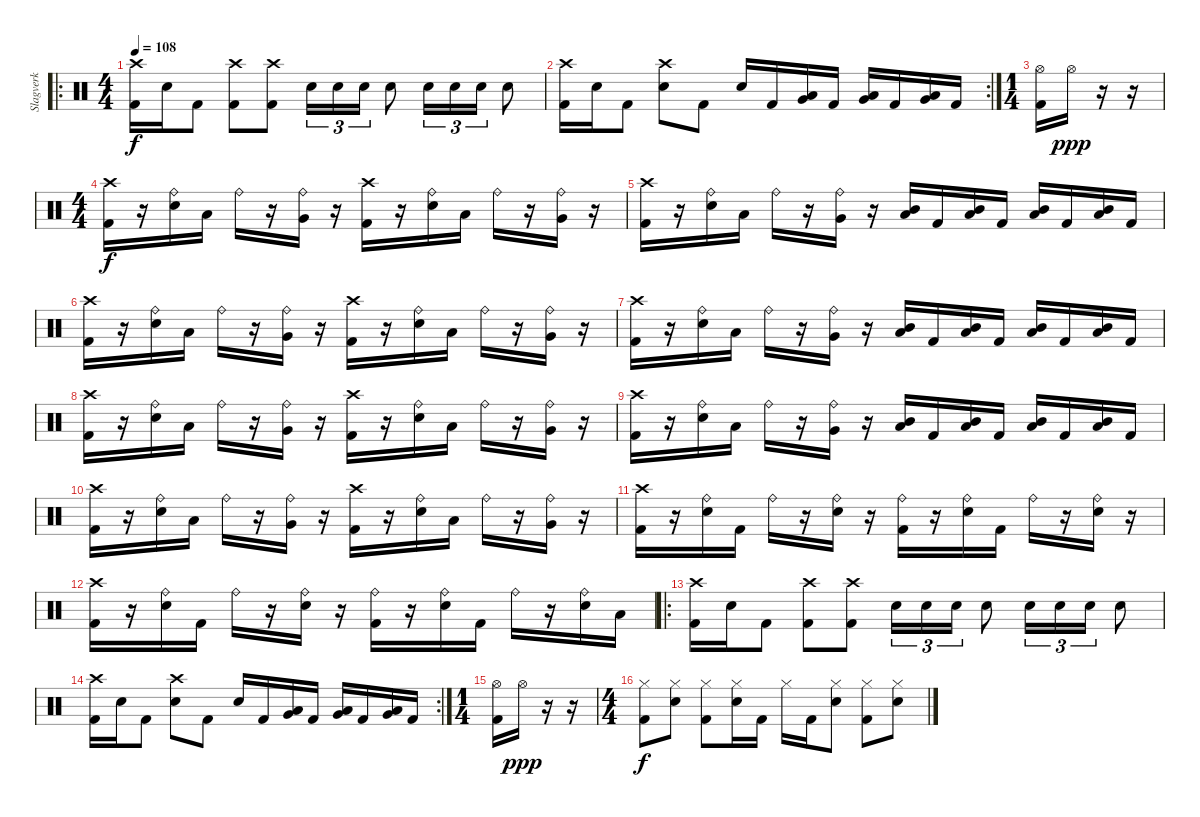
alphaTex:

\track ("Slagverk" "Slagverk") {instrument percussion}
\staff {score}
\articulation defaults
\ro
\ts (4 4)
\tempo 108
\clef neutral
\ks c
("Crash high (hit)" "Kick (hit) 2").16{dy f} "Electric Snare (hit)".16 "Kick (hit) 2".8 ("Crash high (hit)" "Kick (hit) 2").8 ("Crash high (hit)" "Kick (hit) 2").8 "Electric Snare (hit)".16{tu (3 2)} "Electric Snare (hit)".16{tu (3 2)} "Electric Snare (hit)".16{tu (3 2)} "Electric Snare (hit)".8 "Electric Snare (hit)".16{tu (3 2)} "Electric Snare (hit)".16{tu (3 2)} "Electric Snare (hit)".16{tu (3 2)} "Electric Snare (hit)".8 |
\rc 2
("Kick (hit) 2" "Crash high (hit)").16 "Electric Snare (hit)".16 "Kick (hit) 2".8 ("Electric Snare (hit)" "Crash high (hit)").8 "Kick (hit) 2".8 "Electric Snare (hit)".16 "Kick (hit) 2".16 ("Low Tom (hit)" "Very Low Tom (hit)").16 "Kick (hit) 2".16 ("Low Tom (hit)" "Very Low Tom (hit)").16 "Kick (hit) 2".16 ("Low Tom (hit)" "Very Low Tom (hit)").16 "Kick (hit) 2".16 |
\ts (1 4)
("Hi-Hat (open)" "Kick (hit) 2").16 "Hi-Hat (open)".16{dy ppp} r.16 r.16 |
\ts (4 4)
("Crash high (hit)" "Kick (hit) 2").16{dy f} r.16 ("Ride (bell)" "Electric Snare (hit)").16 "Low Tom (hit)".16 "Ride (bell)".16 r.16 ("Ride (bell)" "Very Low Tom (hit)").16 r.16 ("Crash high (hit)" "Kick (hit) 2").16 r.16 ("Ride (bell)" "Electric Snare (hit)").16 "Low Tom (hit)".16 "Ride (bell)".16 r.16 ("Ride (bell)" "Very Low Tom (hit)").16 r.16 |
("Crash high (hit)" "Kick (hit) 2").16 r.16 ("Ride (bell)" "Electric Snare (hit)").16 "Low Tom (hit)".16 "Ride (bell)".16 r.16 ("Ride (bell)" "Very Low Tom (hit)").16 r.16 ("Mid Tom (hit)" "Low Tom (hit)").16 "Kick (hit) 2".16 ("Mid Tom (hit)" "Low Tom (hit)").16 "Kick (hit) 2".16 ("Mid Tom (hit)" "Low Tom (hit)").16 "Kick (hit) 2".16 ("Mid Tom (hit)" "Low Tom (hit)").16 "Kick (hit) 2".16 |
("Crash high (hit)" "Kick (hit) 2").16 r.16 ("Ride (bell)" "Electric Snare (hit)").16 "Low Tom (hit)".16 "Ride (bell)".16 r.16 ("Ride (bell)" "Very Low Tom (hit)").16 r.16 ("Crash high (hit)" "Kick (hit) 2").16 r.16 ("Ride (bell)" "Electric Snare (hit)").16 "Low Tom (hit)".16 "Ride (bell)".16 r.16 ("Ride (bell)" "Very Low Tom (hit)").16 r.16 |
("Crash high (hit)" "Kick (hit) 2").16 r.16 ("Ride (bell)" "Electric Snare (hit)").16 "Low Tom (hit)".16 "Ride (bell)".16 r.16 ("Ride (bell)" "Very Low Tom (hit)").16 r.16 ("Mid Tom (hit)" "Low Tom (hit)").16 "Kick (hit) 2".16 ("Mid Tom (hit)" "Low Tom (hit)").16 "Kick (hit) 2".16 ("Mid Tom (hit)" "Low Tom (hit)").16 "Kick (hit) 2".16 ("Mid Tom (hit)" "Low Tom (hit)").16 "Kick (hit) 2".16 |
("Crash high (hit)" "Kick (hit) 2").16 r.16 ("Ride (bell)" "Electric Snare (hit)").16 "Low Tom (hit)".16 "Ride (bell)".16 r.16 ("Ride (bell)" "Very Low Tom (hit)").16 r.16 ("Crash high (hit)" "Kick (hit) 2").16 r.16 ("Ride (bell)" "Electric Snare (hit)").16 "Low Tom (hit)".16 "Ride (bell)".16 r.16 ("Ride (bell)" "Very Low Tom (hit)").16 r.16 |
("Crash high (hit)" "Kick (hit) 2").16 r.16 ("Ride (bell)" "Electric Snare (hit)").16 "Low Tom (hit)".16 "Ride (bell)".16 r.16 ("Ride (bell)" "Very Low Tom (hit)").16 r.16 ("Mid Tom (hit)" "Low Tom (hit)").16 "Kick (hit) 2".16 ("Mid Tom (hit)" "Low Tom (hit)").16 "Kick (hit) 2".16 ("Mid Tom (hit)" "Low Tom (hit)").16 "Kick (hit) 2".16 ("Mid Tom (hit)" "Low Tom (hit)").16 "Kick (hit) 2".16 |
("Crash high (hit)" "Kick (hit) 2").16 r.16 ("Ride (bell)" "Electric Snare (hit)").16 "Low Tom (hit)".16 "Ride (bell)".16 r.16 ("Ride (bell)" "Very Low Tom (hit)").16 r.16 ("Crash high (hit)" "Kick (hit) 2").16 r.16 ("Ride (bell)" "Electric Snare (hit)").16 "Low Tom (hit)".16 "Ride (bell)".16 r.16 ("Ride (bell)" "Very Low Tom (hit)").16 r.16 |
("Crash high (hit)" "Kick (hit) 2").16 r.16 ("Ride (bell)" "Electric Snare (hit)").16 "Kick (hit) 2".16 "Ride (bell)".16 r.16 ("Ride (bell)" "Electric Snare (hit)").16 r.16 ("Ride (bell)" "Kick (hit) 2").16 r.16 ("Ride (bell)" "Electric Snare (hit)").16 "Kick (hit) 2".16 "Ride (bell)".16 r.16 ("Ride (bell)" "Electric Snare (hit)").16 r.16 |
("Crash high (hit)" "Kick (hit) 2").16 r.16 ("Ride (bell)" "Electric Snare (hit)").16 "Kick (hit) 2".16 "Ride (bell)".16 r.16 ("Ride (bell)" "Electric Snare (hit)").16 r.16 ("Ride (bell)" "Kick (hit) 2").16 r.16 ("Ride (bell)" "Electric Snare (hit)").16 "Kick (hit) 2".16 "Ride (bell)".16 r.16 ("Ride (bell)" "Electric Snare (hit)").16 "Low Tom (hit)".16 |
\ro
("Crash high (hit)" "Kick (hit) 2").16 "Electric Snare (hit)".16 "Kick (hit) 2".8 ("Crash high (hit)" "Kick (hit) 2").8 ("Crash high (hit)" "Kick (hit) 2").8 "Electric Snare (hit)".16{tu (3 2)} "Electric Snare (hit)".16{tu (3 2)} "Electric Snare (hit)".16{tu (3 2)} "Electric Snare (hit)".8 "Electric Snare (hit)".16{tu (3 2)} "Electric Snare (hit)".16{tu (3 2)} "Electric Snare (hit)".16{tu (3 2)} "Electric Snare (hit)".8 |
\rc 2
("Kick (hit) 2" "Crash high (hit)").16 "Electric Snare (hit)".16 "Kick (hit) 2".8 ("Electric Snare (hit)" "Crash high (hit)").8 "Kick (hit) 2".8 "Electric Snare (hit)".16 "Kick (hit) 2".16 ("Low Tom (hit)" "Very Low Tom (hit)").16 "Kick (hit) 2".16 ("Low Tom (hit)" "Very Low Tom (hit)").16 "Kick (hit) 2".16 ("Low Tom (hit)" "Very Low Tom (hit)").16 "Kick (hit) 2".16 |
\ts (1 4)
("Hi-Hat (open)" "Kick (hit) 2").16 "Hi-Hat (open)".16{dy ppp} r.16 r.16 |
\ts (4 4)
("Hi-Hat (closed)" "Kick (hit) 2").8{dy f} ("Hi-Hat (closed)" "Electric Snare (hit)").8 ("Hi-Hat (closed)" "Kick (hit) 2").8 ("Hi-Hat (closed)" "Electric Snare (hit)").16 "Kick (hit) 2".16 "Hi-Hat (closed)".16 "Kick (hit) 2".16 ("Hi-Hat (closed)" "Electric Snare (hit)").8 ("Hi-Hat (closed)" "Kick (hit) 2").8 ("Hi-Hat (closed)" "Electric Snare (hit)").8
